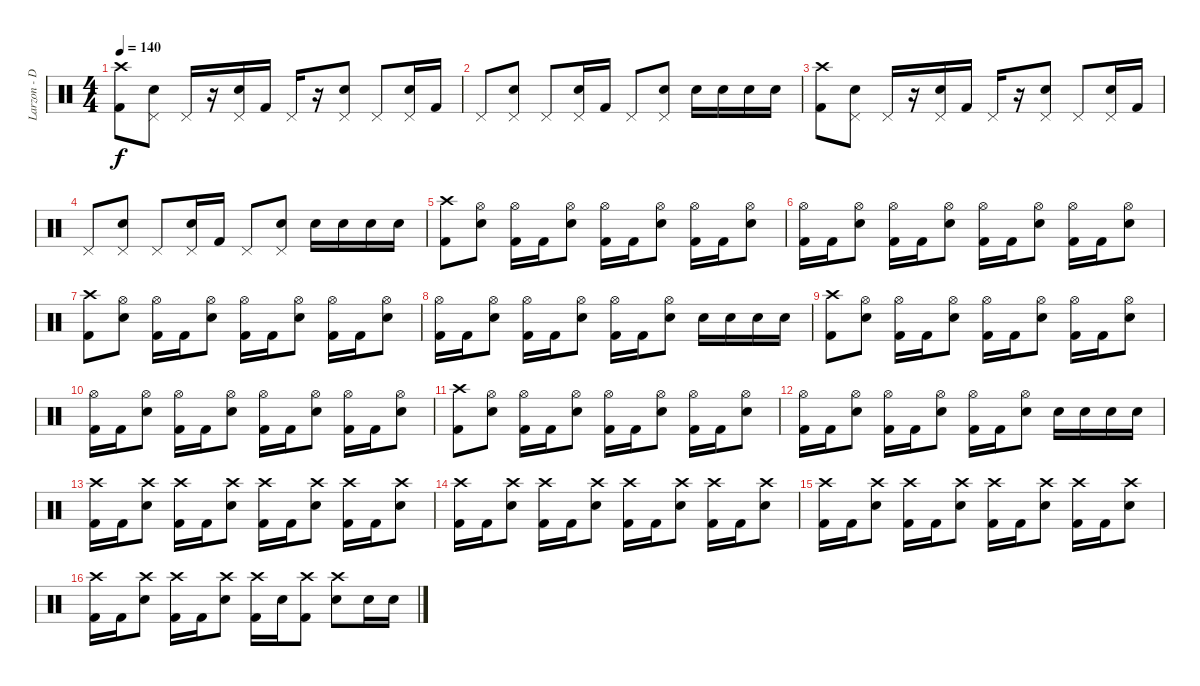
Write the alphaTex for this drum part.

\track ("Larzon - Drums" "Larzon - D") {instrument percussion}
\staff {score}
\articulation defaults
\ts (4 4)
\tempo 140
\clef neutral
\ks c
("Crash high (hit)" "Kick (hit) 2").8{dy f} ("Pedal Hi-Hat (hit)" "Electric Snare (hit)").8 "Pedal Hi-Hat (hit)".16 r.16 ("Pedal Hi-Hat (hit)" "Electric Snare (hit)").16 "Kick (hit) 2".16 "Pedal Hi-Hat (hit)".16 r.16 ("Pedal Hi-Hat (hit)" "Electric Snare (hit)").8 "Pedal Hi-Hat (hit)".8 ("Pedal Hi-Hat (hit)" "Electric Snare (hit)").16 "Kick (hit) 2".16 |
"Pedal Hi-Hat (hit)".8 ("Pedal Hi-Hat (hit)" "Electric Snare (hit)").8 "Pedal Hi-Hat (hit)".8 ("Pedal Hi-Hat (hit)" "Electric Snare (hit)").16 "Kick (hit) 2".16 "Pedal Hi-Hat (hit)".8 ("Pedal Hi-Hat (hit)" "Electric Snare (hit)").8 "Electric Snare (hit)".16 "Electric Snare (hit)".16 "Electric Snare (hit)".16 "Electric Snare (hit)".16 |
("Crash high (hit)" "Kick (hit) 2").8 ("Pedal Hi-Hat (hit)" "Electric Snare (hit)").8 "Pedal Hi-Hat (hit)".16 r.16 ("Pedal Hi-Hat (hit)" "Electric Snare (hit)").16 "Kick (hit) 2".16 "Pedal Hi-Hat (hit)".16 r.16 ("Pedal Hi-Hat (hit)" "Electric Snare (hit)").8 "Pedal Hi-Hat (hit)".8 ("Pedal Hi-Hat (hit)" "Electric Snare (hit)").16 "Kick (hit) 2".16 |
"Pedal Hi-Hat (hit)".8 ("Pedal Hi-Hat (hit)" "Electric Snare (hit)").8 "Pedal Hi-Hat (hit)".8 ("Pedal Hi-Hat (hit)" "Electric Snare (hit)").16 "Kick (hit) 2".16 "Pedal Hi-Hat (hit)".8 ("Pedal Hi-Hat (hit)" "Electric Snare (hit)").8 "Electric Snare (hit)".16 "Electric Snare (hit)".16 "Electric Snare (hit)".16 "Electric Snare (hit)".16 |
("Crash high (hit)" "Kick (hit) 2").8 ("Hi-Hat (open)" "Electric Snare (hit)").8 ("Hi-Hat (open)" "Kick (hit) 2").16 "Kick (hit) 2".16 ("Hi-Hat (open)" "Electric Snare (hit)").8 ("Hi-Hat (open)" "Kick (hit) 2").16 "Kick (hit) 2".16 ("Hi-Hat (open)" "Electric Snare (hit)").8 ("Hi-Hat (open)" "Kick (hit) 2").16 "Kick (hit) 2".16 ("Hi-Hat (open)" "Electric Snare (hit)").8 |
("Hi-Hat (open)" "Kick (hit) 2").16 "Kick (hit) 2".16 ("Hi-Hat (open)" "Electric Snare (hit)").8 ("Hi-Hat (open)" "Kick (hit) 2").16 "Kick (hit) 2".16 ("Hi-Hat (open)" "Electric Snare (hit)").8 ("Hi-Hat (open)" "Kick (hit) 2").16 "Kick (hit) 2".16 ("Hi-Hat (open)" "Electric Snare (hit)").8 ("Hi-Hat (open)" "Kick (hit) 2").16 "Kick (hit) 2".16 ("Hi-Hat (open)" "Electric Snare (hit)").8 |
("Crash high (hit)" "Kick (hit) 2").8 ("Hi-Hat (open)" "Electric Snare (hit)").8 ("Hi-Hat (open)" "Kick (hit) 2").16 "Kick (hit) 2".16 ("Hi-Hat (open)" "Electric Snare (hit)").8 ("Hi-Hat (open)" "Kick (hit) 2").16 "Kick (hit) 2".16 ("Hi-Hat (open)" "Electric Snare (hit)").8 ("Hi-Hat (open)" "Kick (hit) 2").16 "Kick (hit) 2".16 ("Hi-Hat (open)" "Electric Snare (hit)").8 |
("Hi-Hat (open)" "Kick (hit) 2").16 "Kick (hit) 2".16 ("Hi-Hat (open)" "Electric Snare (hit)").8 ("Hi-Hat (open)" "Kick (hit) 2").16 "Kick (hit) 2".16 ("Hi-Hat (open)" "Electric Snare (hit)").8 ("Hi-Hat (open)" "Kick (hit) 2").16 "Kick (hit) 2".16 ("Hi-Hat (open)" "Electric Snare (hit)").8 "Electric Snare (hit)".16 "Electric Snare (hit)".16 "Electric Snare (hit)".16 "Electric Snare (hit)".16 |
("Crash high (hit)" "Kick (hit) 2").8 ("Hi-Hat (open)" "Electric Snare (hit)").8 ("Hi-Hat (open)" "Kick (hit) 2").16 "Kick (hit) 2".16 ("Hi-Hat (open)" "Electric Snare (hit)").8 ("Hi-Hat (open)" "Kick (hit) 2").16 "Kick (hit) 2".16 ("Hi-Hat (open)" "Electric Snare (hit)").8 ("Hi-Hat (open)" "Kick (hit) 2").16 "Kick (hit) 2".16 ("Hi-Hat (open)" "Electric Snare (hit)").8 |
("Hi-Hat (open)" "Kick (hit) 2").16 "Kick (hit) 2".16 ("Hi-Hat (open)" "Electric Snare (hit)").8 ("Hi-Hat (open)" "Kick (hit) 2").16 "Kick (hit) 2".16 ("Hi-Hat (open)" "Electric Snare (hit)").8 ("Hi-Hat (open)" "Kick (hit) 2").16 "Kick (hit) 2".16 ("Hi-Hat (open)" "Electric Snare (hit)").8 ("Hi-Hat (open)" "Kick (hit) 2").16 "Kick (hit) 2".16 ("Hi-Hat (open)" "Electric Snare (hit)").8 |
("Crash high (hit)" "Kick (hit) 2").8 ("Hi-Hat (open)" "Electric Snare (hit)").8 ("Hi-Hat (open)" "Kick (hit) 2").16 "Kick (hit) 2".16 ("Hi-Hat (open)" "Electric Snare (hit)").8 ("Hi-Hat (open)" "Kick (hit) 2").16 "Kick (hit) 2".16 ("Hi-Hat (open)" "Electric Snare (hit)").8 ("Hi-Hat (open)" "Kick (hit) 2").16 "Kick (hit) 2".16 ("Hi-Hat (open)" "Electric Snare (hit)").8 |
("Hi-Hat (open)" "Kick (hit) 2").16 "Kick (hit) 2".16 ("Hi-Hat (open)" "Electric Snare (hit)").8 ("Hi-Hat (open)" "Kick (hit) 2").16 "Kick (hit) 2".16 ("Hi-Hat (open)" "Electric Snare (hit)").8 ("Hi-Hat (open)" "Kick (hit) 2").16 "Kick (hit) 2".16 ("Hi-Hat (open)" "Electric Snare (hit)").8 "Electric Snare (hit)".16 "Electric Snare (hit)".16 "Electric Snare (hit)".16 "Electric Snare (hit)".16 |
("Crash high (hit)" "Kick (hit) 2").16 "Kick (hit) 2".16 ("Crash high (hit)" "Electric Snare (hit)").8 ("Crash high (hit)" "Kick (hit) 2").16 "Kick (hit) 2".16 ("Crash high (hit)" "Electric Snare (hit)").8 ("Crash high (hit)" "Kick (hit) 2").16 "Kick (hit) 2".16 ("Crash high (hit)" "Electric Snare (hit)").8 ("Crash high (hit)" "Kick (hit) 2").16 "Kick (hit) 2".16 ("Crash high (hit)" "Electric Snare (hit)").8 |
("Crash high (hit)" "Kick (hit) 2").16 "Kick (hit) 2".16 ("Crash high (hit)" "Electric Snare (hit)").8 ("Crash high (hit)" "Kick (hit) 2").16 "Kick (hit) 2".16 ("Crash high (hit)" "Electric Snare (hit)").8 ("Crash high (hit)" "Kick (hit) 2").16 "Kick (hit) 2".16 ("Crash high (hit)" "Electric Snare (hit)").8 ("Crash high (hit)" "Kick (hit) 2").16 "Kick (hit) 2".16 ("Crash high (hit)" "Electric Snare (hit)").8 |
("Crash high (hit)" "Kick (hit) 2").16 "Kick (hit) 2".16 ("Crash high (hit)" "Electric Snare (hit)").8 ("Crash high (hit)" "Kick (hit) 2").16 "Kick (hit) 2".16 ("Crash high (hit)" "Electric Snare (hit)").8 ("Crash high (hit)" "Kick (hit) 2").16 "Kick (hit) 2".16 ("Crash high (hit)" "Electric Snare (hit)").8 ("Crash high (hit)" "Kick (hit) 2").16 "Kick (hit) 2".16 ("Crash high (hit)" "Electric Snare (hit)").8 |
("Crash high (hit)" "Kick (hit) 2").16 "Kick (hit) 2".16 ("Crash high (hit)" "Electric Snare (hit)").8 ("Crash high (hit)" "Kick (hit) 2").16 "Kick (hit) 2".16 ("Crash high (hit)" "Electric Snare (hit)").8 ("Crash high (hit)" "Kick (hit) 2").16 "Electric Snare (hit)".16 ("Crash high (hit)" "Kick (hit) 2").8 ("Crash high (hit)" "Electric Snare (hit)").8 "Electric Snare (hit)".16 "Electric Snare (hit)".16
